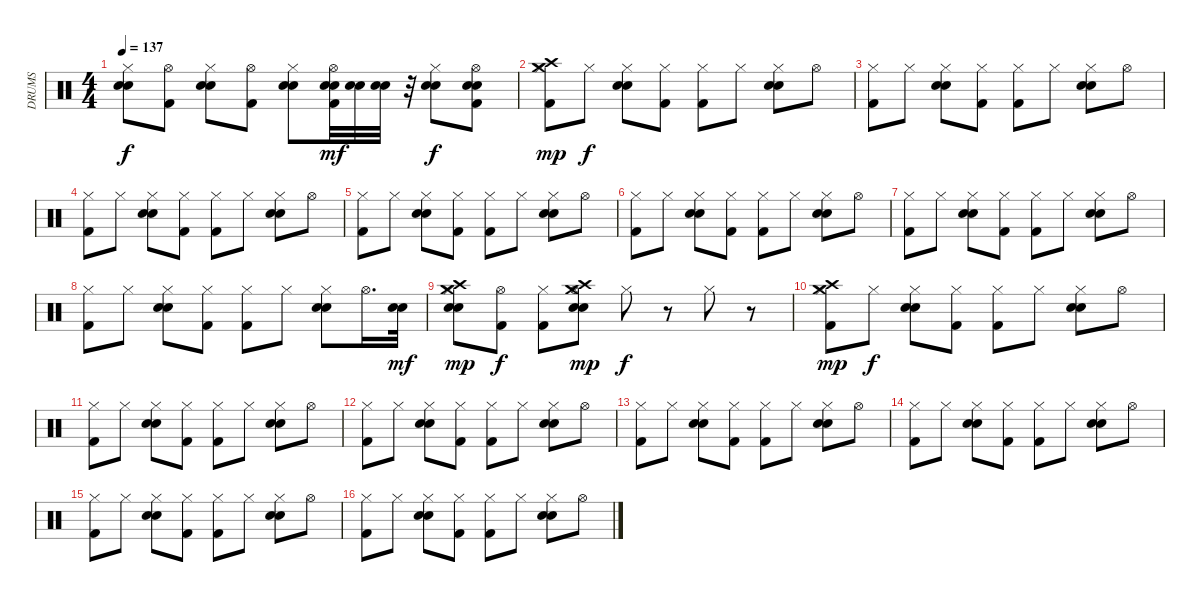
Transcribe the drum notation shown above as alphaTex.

\track ("DRUMS" "DRUMS") {instrument percussion}
\staff {score}
\articulation defaults
\ts (4 4)
\tempo 137
\clef neutral
\ks c
("Snare (hit) 2" "Electric Snare (hit)" "Hi-Hat (closed)").8{dy f} ("Hi-Hat (open)" "Kick (hit) 2").8 ("Snare (hit) 2" "Electric Snare (hit)" "Hi-Hat (closed)").8 ("Hi-Hat (open)" "Kick (hit) 2").8 ("Snare (hit) 2" "Electric Snare (hit)" "Hi-Hat (closed)").8 ("Hi-Hat (open)" "Electric Snare (hit)" "Snare (hit) 2" "Kick (hit) 2").32{dy mf} ("Electric Snare (hit)" "Snare (hit) 2").32 ("Snare (hit) 2" "Electric Snare (hit)").32 r.32 ("Snare (hit) 2" "Electric Snare (hit)" "Hi-Hat (closed)").8{dy f} ("Snare (hit) 2" "Electric Snare (hit)" "Hi-Hat (open)" "Kick (hit) 2").8 |
("Crash high (hit)" "Crash medium (hit)" "Hi-Hat (closed)" "Kick (hit) 2").8{dy mp} "Hi-Hat (closed)".8{dy f} ("Hi-Hat (closed)" "Electric Snare (hit)" "Snare (hit) 2").8 ("Hi-Hat (closed)" "Kick (hit) 2").8 ("Hi-Hat (closed)" "Kick (hit) 2").8 "Hi-Hat (closed)".8 ("Hi-Hat (closed)" "Electric Snare (hit)" "Snare (hit) 2").8 "Hi-Hat (open)".8 |
("Hi-Hat (closed)" "Kick (hit) 2").8 "Hi-Hat (closed)".8 ("Hi-Hat (closed)" "Electric Snare (hit)" "Snare (hit) 2").8 ("Hi-Hat (closed)" "Kick (hit) 2").8 ("Hi-Hat (closed)" "Kick (hit) 2").8 "Hi-Hat (closed)".8 ("Hi-Hat (closed)" "Electric Snare (hit)" "Snare (hit) 2").8 "Hi-Hat (open)".8 |
("Hi-Hat (closed)" "Kick (hit) 2").8 "Hi-Hat (closed)".8 ("Hi-Hat (closed)" "Electric Snare (hit)" "Snare (hit) 2").8 ("Hi-Hat (closed)" "Kick (hit) 2").8 ("Hi-Hat (closed)" "Kick (hit) 2").8 "Hi-Hat (closed)".8 ("Hi-Hat (closed)" "Electric Snare (hit)" "Snare (hit) 2").8 "Hi-Hat (open)".8 |
("Hi-Hat (closed)" "Kick (hit) 2").8 "Hi-Hat (closed)".8 ("Hi-Hat (closed)" "Electric Snare (hit)" "Snare (hit) 2").8 ("Hi-Hat (closed)" "Kick (hit) 2").8 ("Hi-Hat (closed)" "Kick (hit) 2").8 "Hi-Hat (closed)".8 ("Hi-Hat (closed)" "Electric Snare (hit)" "Snare (hit) 2").8 "Hi-Hat (open)".8 |
("Hi-Hat (closed)" "Kick (hit) 2").8 "Hi-Hat (closed)".8 ("Hi-Hat (closed)" "Electric Snare (hit)" "Snare (hit) 2").8 ("Hi-Hat (closed)" "Kick (hit) 2").8 ("Hi-Hat (closed)" "Kick (hit) 2").8 "Hi-Hat (closed)".8 ("Hi-Hat (closed)" "Electric Snare (hit)" "Snare (hit) 2").8 "Hi-Hat (open)".8 |
("Hi-Hat (closed)" "Kick (hit) 2").8 "Hi-Hat (closed)".8 ("Hi-Hat (closed)" "Electric Snare (hit)" "Snare (hit) 2").8 ("Hi-Hat (closed)" "Kick (hit) 2").8 ("Hi-Hat (closed)" "Kick (hit) 2").8 "Hi-Hat (closed)".8 ("Hi-Hat (closed)" "Electric Snare (hit)" "Snare (hit) 2").8 "Hi-Hat (open)".8 |
("Hi-Hat (closed)" "Kick (hit) 2").8 "Hi-Hat (closed)".8 ("Hi-Hat (closed)" "Electric Snare (hit)" "Snare (hit) 2").8 ("Hi-Hat (closed)" "Kick (hit) 2").8 ("Hi-Hat (closed)" "Kick (hit) 2").8 "Hi-Hat (closed)".8 ("Hi-Hat (closed)" "Electric Snare (hit)" "Snare (hit) 2").8 "Hi-Hat (open)".16{d} ("Snare (hit) 2" "Electric Snare (hit)").32{dy mf} |
("Snare (hit) 2" "Electric Snare (hit)" "Hi-Hat (closed)" "Crash high (hit)" "Crash medium (hit)").8{dy mp} ("Hi-Hat (open)" "Kick (hit) 2").8{dy f} ("Hi-Hat (closed)" "Kick (hit) 2").8 ("Crash high (hit)" "Crash medium (hit)" "Hi-Hat (open)" "Snare (hit) 2" "Electric Snare (hit)").8{dy mp} "Hi-Hat (closed)".8{dy f} r.8 "Hi-Hat (closed)".8 r.8 |
("Hi-Hat (closed)" "Crash high (hit)" "Crash medium (hit)" "Kick (hit) 2").8{dy mp} "Hi-Hat (closed)".8{dy f} ("Hi-Hat (closed)" "Electric Snare (hit)" "Snare (hit) 2").8 ("Hi-Hat (closed)" "Kick (hit) 2").8 ("Hi-Hat (closed)" "Kick (hit) 2").8 "Hi-Hat (closed)".8 ("Hi-Hat (closed)" "Electric Snare (hit)" "Snare (hit) 2").8 "Hi-Hat (open)".8 |
("Hi-Hat (closed)" "Kick (hit) 2").8 "Hi-Hat (closed)".8 ("Hi-Hat (closed)" "Electric Snare (hit)" "Snare (hit) 2").8 ("Hi-Hat (closed)" "Kick (hit) 2").8 ("Hi-Hat (closed)" "Kick (hit) 2").8 "Hi-Hat (closed)".8 ("Hi-Hat (closed)" "Electric Snare (hit)" "Snare (hit) 2").8 "Hi-Hat (open)".8 |
("Hi-Hat (closed)" "Kick (hit) 2").8 "Hi-Hat (closed)".8 ("Hi-Hat (closed)" "Electric Snare (hit)" "Snare (hit) 2").8 ("Hi-Hat (closed)" "Kick (hit) 2").8 ("Hi-Hat (closed)" "Kick (hit) 2").8 "Hi-Hat (closed)".8 ("Hi-Hat (closed)" "Electric Snare (hit)" "Snare (hit) 2").8 "Hi-Hat (open)".8 |
("Hi-Hat (closed)" "Kick (hit) 2").8 "Hi-Hat (closed)".8 ("Hi-Hat (closed)" "Electric Snare (hit)" "Snare (hit) 2").8 ("Hi-Hat (closed)" "Kick (hit) 2").8 ("Hi-Hat (closed)" "Kick (hit) 2").8 "Hi-Hat (closed)".8 ("Hi-Hat (closed)" "Electric Snare (hit)" "Snare (hit) 2").8 "Hi-Hat (open)".8 |
("Hi-Hat (closed)" "Kick (hit) 2").8 "Hi-Hat (closed)".8 ("Hi-Hat (closed)" "Electric Snare (hit)" "Snare (hit) 2").8 ("Hi-Hat (closed)" "Kick (hit) 2").8 ("Hi-Hat (closed)" "Kick (hit) 2").8 "Hi-Hat (closed)".8 ("Hi-Hat (closed)" "Electric Snare (hit)" "Snare (hit) 2").8 "Hi-Hat (open)".8 |
("Hi-Hat (closed)" "Kick (hit) 2").8 "Hi-Hat (closed)".8 ("Hi-Hat (closed)" "Electric Snare (hit)" "Snare (hit) 2").8 ("Hi-Hat (closed)" "Kick (hit) 2").8 ("Hi-Hat (closed)" "Kick (hit) 2").8 "Hi-Hat (closed)".8 ("Hi-Hat (closed)" "Electric Snare (hit)" "Snare (hit) 2").8 "Hi-Hat (open)".8 |
("Hi-Hat (closed)" "Kick (hit) 2").8 "Hi-Hat (closed)".8 ("Hi-Hat (closed)" "Electric Snare (hit)" "Snare (hit) 2").8 ("Hi-Hat (closed)" "Kick (hit) 2").8 ("Hi-Hat (closed)" "Kick (hit) 2").8 "Hi-Hat (closed)".8 ("Hi-Hat (closed)" "Electric Snare (hit)" "Snare (hit) 2").8 "Hi-Hat (open)".8
